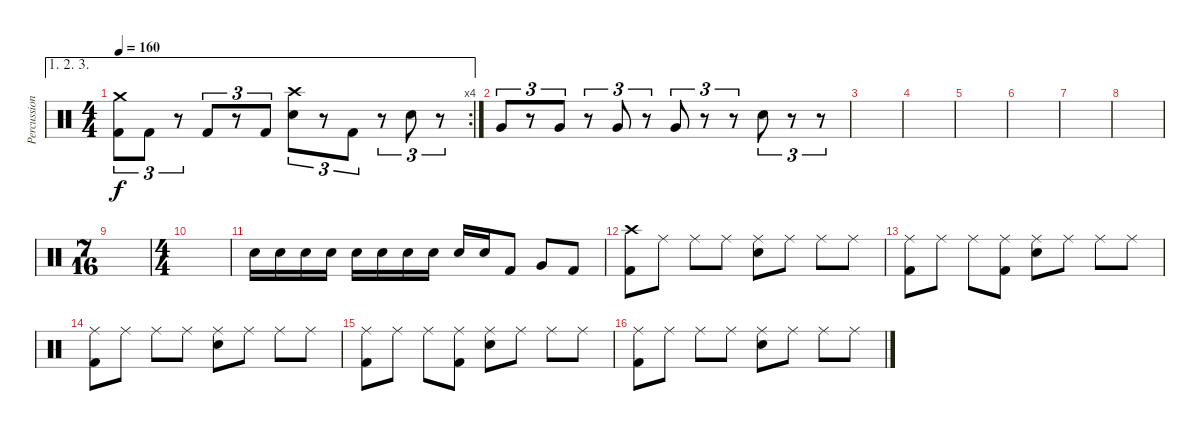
\track ("Percussion" "Percussion") {instrument percussion}
\staff {score}
\articulation defaults
\ae (1 2 3)
\rc 4
\ts (4 4)
\tempo 160
\clef neutral
\ks c
("Crash medium (hit)" "Kick (hit) 2").8{tu (3 2) dy f} "Kick (hit) 2".8{tu (3 2)} r.8{tu (3 2)} "Kick (hit) 2".8{tu (3 2)} r.8{tu (3 2)} "Kick (hit) 2".8{tu (3 2)} ("Crash high (hit)" "Electric Snare (hit)").8{tu (3 2)} r.8{tu (3 2)} "Kick (hit) 2".8{tu (3 2)} r.8{tu (3 2)} "Electric Snare (hit)".8{tu (3 2)} r.8{tu (3 2)} |
"Very Low Tom (hit)".8{tu (3 2)} r.8{tu (3 2)} "Very Low Tom (hit)".8{tu (3 2)} r.8{tu (3 2)} "Very Low Tom (hit)".8{tu (3 2)} r.8{tu (3 2)} "Very Low Tom (hit)".8{tu (3 2)} r.8{tu (3 2)} r.8{tu (3 2)} "Electric Snare (hit)".8{tu (3 2)} r.8{tu (3 2)} r.8{tu (3 2)} |
|
|
|
|
|
|
\ts (7 16)
|
\ts (4 4)
|
"Electric Snare (hit)".16 "Electric Snare (hit)".16 "Electric Snare (hit)".16 "Electric Snare (hit)".16 "Electric Snare (hit)".16 "Electric Snare (hit)".16 "Electric Snare (hit)".16 "Electric Snare (hit)".16 "Electric Snare (hit)".16 "Electric Snare (hit)".16 "Kick (hit) 2".8 "Very Low Tom (hit)".8 "Kick (hit) 2".8 |
("Crash high (hit)" "Kick (hit) 2").8 "Ride (middle)".8 "Ride (middle)".8 "Ride (middle)".8 ("Ride (middle)" "Electric Snare (hit)").8 "Ride (middle)".8 "Ride (middle)".8 "Ride (middle)".8 |
("Ride (middle)" "Kick (hit) 2").8 "Ride (middle)".8 "Ride (middle)".8 ("Ride (middle)" "Kick (hit) 2").8 ("Ride (middle)" "Electric Snare (hit)").8 "Ride (middle)".8 "Ride (middle)".8 "Ride (middle)".8 |
("Ride (middle)" "Kick (hit) 2").8 "Ride (middle)".8 "Ride (middle)".8 "Ride (middle)".8 ("Ride (middle)" "Electric Snare (hit)").8 "Ride (middle)".8 "Ride (middle)".8 "Ride (middle)".8 |
("Ride (middle)" "Kick (hit) 2").8 "Ride (middle)".8 "Ride (middle)".8 ("Ride (middle)" "Kick (hit) 2").8 ("Ride (middle)" "Electric Snare (hit)").8 "Ride (middle)".8 "Ride (middle)".8 "Ride (middle)".8 |
("Ride (middle)" "Kick (hit) 2").8 "Ride (middle)".8 "Ride (middle)".8 "Ride (middle)".8 ("Ride (middle)" "Electric Snare (hit)").8 "Ride (middle)".8 "Ride (middle)".8 "Ride (middle)".8
